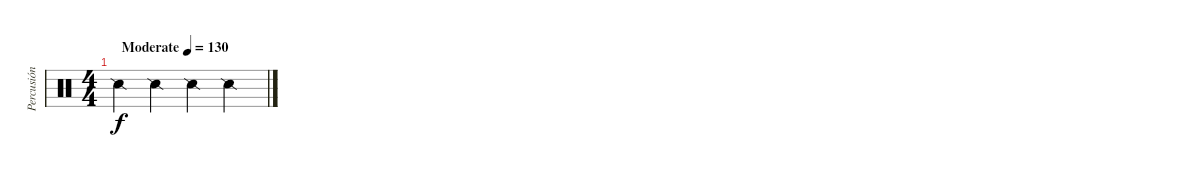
\track ("Percusión" "Percusión") {instrument percussion}
\staff {score}
\articulation defaults
\ts (4 4)
\tempo (130 "Moderate")
\clef neutral
\ks c "Snare (side stick) 2".4{dy f} "Snare (side stick) 2".4 "Snare (side stick) 2".4 "Snare (side stick) 2".4
